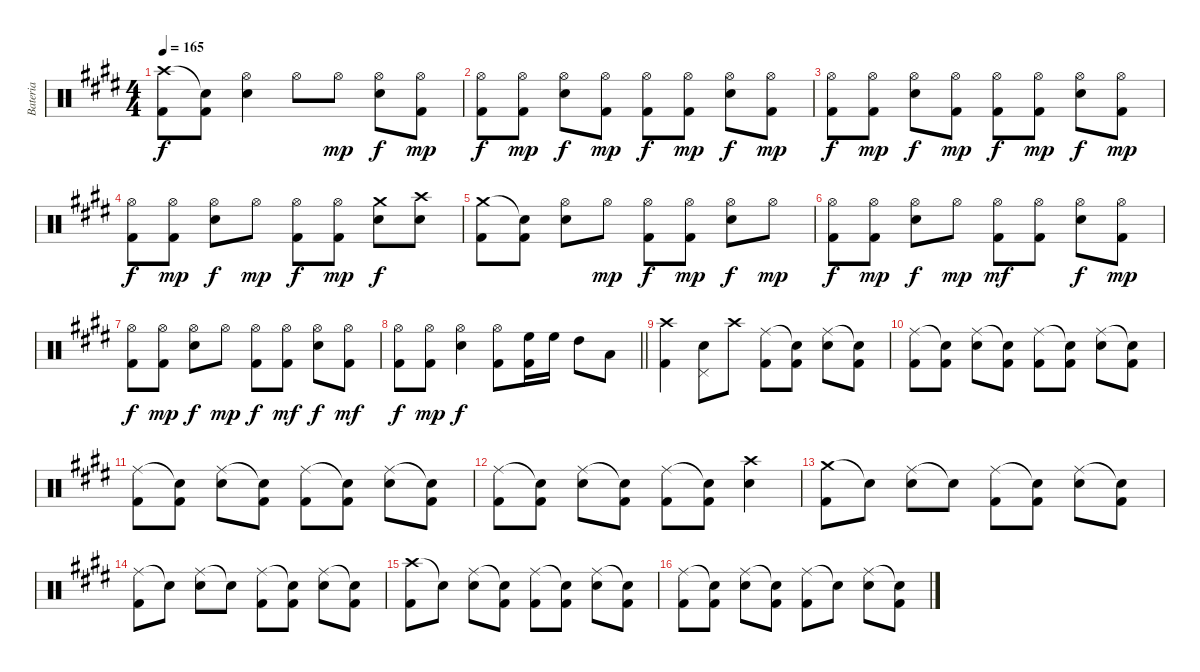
\track ("Bateria" "Bateria") {instrument percussion}
\staff {score}
\articulation defaults
\ts (4 4)
\tempo 165
\clef neutral
\ks e
("Crash high (hit)" "Kick (hit) 2").8{dy f} ("Snare (hit)"{t} "Kick (hit) 2").8 ("Hi-Hat (open)" "Electric Snare (hit)").4 "Hi-Hat (open)".8 "Hi-Hat (open)".8{dy mp} ("Hi-Hat (open)" "Electric Snare (hit)").8{dy f} ("Hi-Hat (open)" "Kick (hit) 2").8{dy mp} |
("Hi-Hat (open)" "Kick (hit) 2").8{dy f} ("Hi-Hat (open)" "Kick (hit) 2").8{dy mp} ("Hi-Hat (open)" "Electric Snare (hit)").8{dy f} ("Hi-Hat (open)" "Kick (hit) 2").8{dy mp} ("Hi-Hat (open)" "Kick (hit) 2").8{dy f} ("Hi-Hat (open)" "Kick (hit) 2").8{dy mp} ("Hi-Hat (open)" "Electric Snare (hit)").8{dy f} ("Hi-Hat (open)" "Kick (hit) 2").8{dy mp} |
("Hi-Hat (open)" "Kick (hit) 2").8{dy f} ("Hi-Hat (open)" "Kick (hit) 2").8{dy mp} ("Hi-Hat (open)" "Electric Snare (hit)").8{dy f} ("Hi-Hat (open)" "Kick (hit) 2").8{dy mp} ("Hi-Hat (open)" "Kick (hit) 2").8{dy f} ("Hi-Hat (open)" "Kick (hit) 2").8{dy mp} ("Hi-Hat (open)" "Electric Snare (hit)").8{dy f} ("Hi-Hat (open)" "Kick (hit) 2").8{dy mp} |
("Hi-Hat (open)" "Kick (hit) 2").8{dy f} ("Hi-Hat (open)" "Kick (hit) 2").8{dy mp} ("Hi-Hat (open)" "Electric Snare (hit)").8{dy f} "Hi-Hat (open)".8{dy mp} ("Hi-Hat (open)" "Kick (hit) 2").8{dy f} ("Hi-Hat (open)" "Kick (hit) 2").8{dy mp} ("Crash medium (hit)" "Electric Snare (hit)").8{dy f} ("Crash high (hit)" "Electric Snare (hit)").8 |
("Crash medium (hit)" "Kick (hit) 2").8 ("Snare (hit)"{t} "Kick (hit) 2").8 ("Hi-Hat (open)" "Electric Snare (hit)").8 "Hi-Hat (open)".8{dy mp} ("Hi-Hat (open)" "Kick (hit) 2").8{dy f} ("Hi-Hat (open)" "Kick (hit) 2").8{dy mp} ("Hi-Hat (open)" "Electric Snare (hit)").8{dy f} "Hi-Hat (open)".8{dy mp} |
("Hi-Hat (open)" "Kick (hit) 2").8{dy f} ("Hi-Hat (open)" "Kick (hit) 2").8{dy mp} ("Hi-Hat (open)" "Electric Snare (hit)").8{dy f} "Hi-Hat (open)".8{dy mp} ("Hi-Hat (open)" "Kick (hit) 2").8{dy mf} ("Hi-Hat (open)" "Kick (hit) 2").8 ("Hi-Hat (open)" "Electric Snare (hit)").8{dy f} ("Hi-Hat (open)" "Kick (hit) 2").8{dy mp} |
("Hi-Hat (open)" "Kick (hit) 2").8{dy f} ("Hi-Hat (open)" "Kick (hit) 2").8{dy mp} ("Hi-Hat (open)" "Electric Snare (hit)").8{dy f} "Hi-Hat (open)".8{dy mp} ("Hi-Hat (open)" "Kick (hit) 2").8{dy f} ("Hi-Hat (open)" "Kick (hit) 2").8{dy mf} ("Hi-Hat (open)" "Electric Snare (hit)").8{dy f} ("Hi-Hat (open)" "Kick (hit) 2").8{dy mf} |
\barLineRight lightlight
("Hi-Hat (open)" "Kick (hit) 2").8{dy f} ("Hi-Hat (open)" "Kick (hit) 2").8{dy mp} ("Hi-Hat (open)" "Electric Snare (hit)").4{dy f} ("Hi-Hat (open)" "Kick (hit) 2").8 ("High Floor Tom (hit)" "Kick (hit) 2").16 "High Floor Tom (hit)".16 "High Tom (hit)".8 "Low Tom (hit)".8 |
("Crash high (hit)" "Kick (hit) 2").4 ("Pedal Hi-Hat (hit)" "Electric Snare (hit)").8 "Crash high (hit)".8 ("Ride (middle)" "Kick (hit) 2").8 ("Snare (hit)"{t} "Kick (hit) 2").8 ("Ride (middle)" "Electric Snare (hit)").8 ("Snare (hit)"{t} "Kick (hit) 2").8 |
("Ride (middle)" "Kick (hit) 2").8 ("Snare (hit)"{t} "Kick (hit) 2").8 ("Ride (middle)" "Electric Snare (hit)").8 ("Snare (hit)"{t} "Kick (hit) 2").8 ("Ride (middle)" "Kick (hit) 2").8 ("Snare (hit)"{t} "Kick (hit) 2").8 ("Ride (middle)" "Electric Snare (hit)").8 ("Snare (hit)"{t} "Kick (hit) 2").8 |
("Ride (middle)" "Kick (hit) 2").8 ("Snare (hit)"{t} "Kick (hit) 2").8 ("Ride (middle)" "Electric Snare (hit)").8 ("Snare (hit)"{t} "Kick (hit) 2").8 ("Ride (middle)" "Kick (hit) 2").8 ("Snare (hit)"{t} "Kick (hit) 2").8 ("Ride (middle)" "Electric Snare (hit)").8 ("Snare (hit)"{t} "Kick (hit) 2").8 |
("Ride (middle)" "Kick (hit) 2").8 ("Snare (hit)"{t} "Kick (hit) 2").8 ("Ride (middle)" "Electric Snare (hit)").8 ("Snare (hit)"{t} "Kick (hit) 2").8 ("Ride (middle)" "Kick (hit) 2").8 ("Snare (hit)"{t} "Kick (hit) 2").8 ("Crash high (hit)" "Electric Snare (hit)").4 |
("Crash medium (hit)" "Kick (hit) 2").8 "Snare (hit)"{t}.8 ("Ride (middle)" "Electric Snare (hit)").8 "Snare (hit)"{t}.8 ("Ride (middle)" "Kick (hit) 2").8 ("Snare (hit)"{t} "Kick (hit) 2").8 ("Ride (middle)" "Electric Snare (hit)").8 ("Snare (hit)"{t} "Kick (hit) 2").8 |
("Ride (middle)" "Kick (hit) 2").8 "Snare (hit)"{t}.8 ("Ride (middle)" "Electric Snare (hit)").8 "Snare (hit)"{t}.8 ("Ride (middle)" "Kick (hit) 2").8 ("Snare (hit)"{t} "Kick (hit) 2").8 ("Ride (middle)" "Electric Snare (hit)").8 ("Snare (hit)"{t} "Kick (hit) 2").8 |
("Crash high (hit)" "Kick (hit) 2").8 "Snare (hit)"{t}.8 ("Ride (middle)" "Electric Snare (hit)").8 ("Snare (hit)"{t} "Kick (hit) 2").8 ("Ride (middle)" "Kick (hit) 2").8 ("Snare (hit)"{t} "Kick (hit) 2").8 ("Ride (middle)" "Electric Snare (hit)").8 ("Snare (hit)"{t} "Kick (hit) 2").8 |
("Ride (middle)" "Kick (hit) 2").8 ("Snare (hit)"{t} "Kick (hit) 2").8 ("Ride (middle)" "Electric Snare (hit)").8 ("Snare (hit)"{t} "Kick (hit) 2").8 ("Ride (middle)" "Kick (hit) 2").8 "Snare (hit)"{t}.8 ("Ride (middle)" "Electric Snare (hit)").8 ("Snare (hit)"{t} "Kick (hit) 2").8
